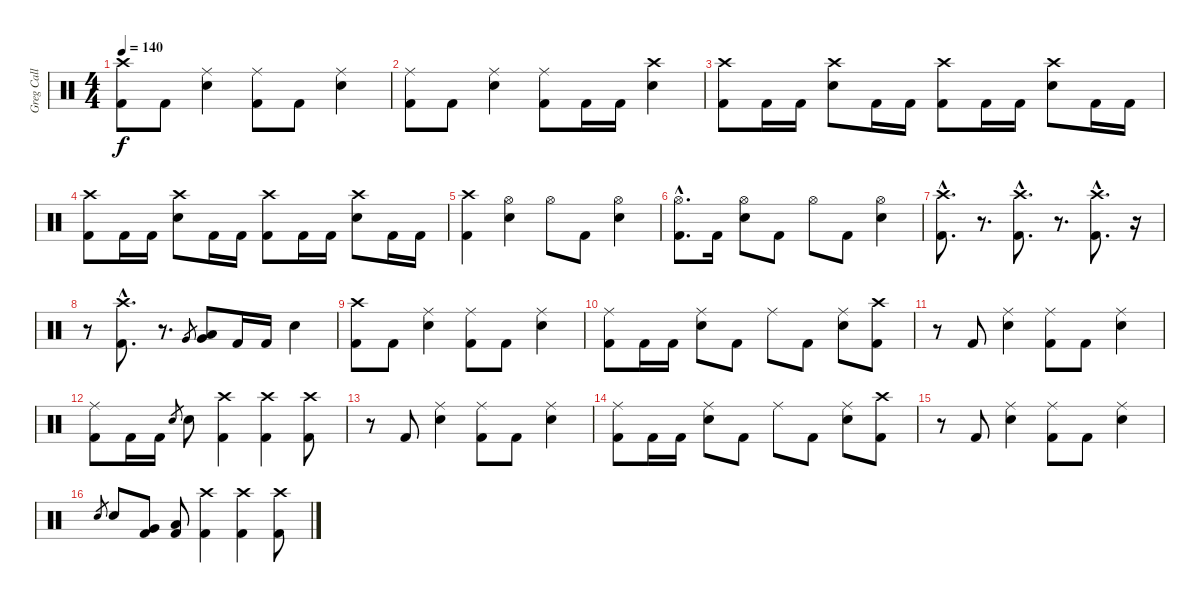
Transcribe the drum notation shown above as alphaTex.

\track ("Greg Call (Drums)" "Greg Call ") {instrument percussion}
\staff {score}
\articulation defaults
\ts (4 4)
\tempo 140
\clef neutral
\ks c
("Crash high (hit)" "Kick (hit) 2").8{dy f} "Kick (hit) 2".8 ("Ride (middle)" "Snare (hit) 2").4 ("Ride (middle)" "Kick (hit) 2").8 "Kick (hit) 2".8 ("Ride (middle)" "Snare (hit) 2").4 |
("Ride (middle)" "Kick (hit) 2").8 "Kick (hit) 2".8 ("Ride (middle)" "Snare (hit) 2").4 ("Ride (middle)" "Kick (hit) 2").8 "Kick (hit) 2".16 "Kick (hit) 2".16 ("Crash high (hit)" "Snare (hit) 2").4 |
("Crash high (hit)" "Kick (hit) 2").8 "Kick (hit) 2".16 "Kick (hit) 2".16 ("Crash high (hit)" "Snare (hit) 2").8 "Kick (hit) 2".16 "Kick (hit) 2".16 ("Crash high (hit)" "Kick (hit) 2").8 "Kick (hit) 2".16 "Kick (hit) 2".16 ("Crash high (hit)" "Snare (hit) 2").8 "Kick (hit) 2".16 "Kick (hit) 2".16 |
("Crash high (hit)" "Kick (hit) 2").8 "Kick (hit) 2".16 "Kick (hit) 2".16 ("Crash high (hit)" "Snare (hit) 2").8 "Kick (hit) 2".16 "Kick (hit) 2".16 ("Crash high (hit)" "Kick (hit) 2").8 "Kick (hit) 2".16 "Kick (hit) 2".16 ("Crash high (hit)" "Snare (hit) 2").8 "Kick (hit) 2".16 "Kick (hit) 2".16 |
("Kick (hit) 2" "Crash high (hit)").4 ("Hi-Hat (open)" "Snare (hit) 2").4 "Hi-Hat (open)".8 "Kick (hit) 2".8 ("Hi-Hat (open)" "Snare (hit) 2").4 |
("Hi-Hat (open)"{hac} "Kick (hit) 2"{hac}).8{d} "Kick (hit) 2".16 ("Hi-Hat (open)" "Snare (hit) 2").8 "Kick (hit) 2".8 "Hi-Hat (open)".8 "Kick (hit) 2".8 ("Hi-Hat (open)" "Snare (hit) 2").4 |
("Crash high (hit)"{hac} "Kick (hit) 2"{hac}).8{d} r.8{d volume 0} ("Crash high (hit)"{hac} "Kick (hit) 2"{hac}).8{d volume 16} r.8{d volume 0} ("Crash high (hit)"{hac} "Kick (hit) 2"{hac}).8{d volume 16} r.16{volume 0} |
r.8 ("Crash high (hit)"{hac} "Kick (hit) 2"{hac}).8{d volume 16} r.8{d} "Very Low Tom (hit)".8{gr} ("Low Tom (hit)" "Very Low Tom (hit)").8 "Kick (hit) 2".16 "Kick (hit) 2".16 "Snare (hit) 2".4 |
("Crash high (hit)" "Kick (hit) 2").8 "Kick (hit) 2".8 ("Ride (middle)" "Snare (hit) 2").4 ("Ride (middle)" "Kick (hit) 2").8 "Kick (hit) 2".8 ("Ride (middle)" "Snare (hit) 2").4 |
("Ride (middle)" "Kick (hit) 2").8 "Kick (hit) 2".16 "Kick (hit) 2".16 ("Ride (middle)" "Snare (hit) 2").8 "Kick (hit) 2".8 "Ride (middle)".8 "Kick (hit) 2".8 ("Ride (middle)" "Snare (hit) 2").8 ("Crash high (hit)" "Kick (hit) 2").8 |
r.8 "Kick (hit) 2".8 ("Ride (middle)" "Snare (hit) 2").4 ("Ride (middle)" "Kick (hit) 2").8 "Kick (hit) 2".8 ("Ride (middle)" "Snare (hit) 2").4 |
("Ride (middle)" "Kick (hit) 2").8 "Kick (hit) 2".16 "Kick (hit) 2".16 "Snare (hit) 2".8{gr} "Snare (hit) 2".8 ("Crash high (hit)" "Kick (hit) 2").4 ("Crash high (hit)" "Kick (hit) 2").4 ("Crash high (hit)" "Kick (hit) 2").8 |
r.8 "Kick (hit) 2".8 ("Ride (middle)" "Snare (hit) 2").4 ("Ride (middle)" "Kick (hit) 2").8 "Kick (hit) 2".8 ("Ride (middle)" "Snare (hit) 2").4 |
("Ride (middle)" "Kick (hit) 2").8 "Kick (hit) 2".16 "Kick (hit) 2".16 ("Ride (middle)" "Snare (hit) 2").8 "Kick (hit) 2".8 "Ride (middle)".8 "Kick (hit) 2".8 ("Ride (middle)" "Snare (hit) 2").8 ("Crash high (hit)" "Kick (hit) 2").8 |
r.8 "Kick (hit) 2".8 ("Ride (middle)" "Snare (hit) 2").4 ("Ride (middle)" "Kick (hit) 2").8 "Kick (hit) 2".8 ("Ride (middle)" "Snare (hit) 2").4 |
"Snare (hit) 2".8{gr} "Snare (hit) 2".8 ("Very Low Tom (hit)" "Kick (hit) 2").8 ("Low Floor Tom (hit)" "Kick (hit) 2").8 ("Crash high (hit)" "Kick (hit) 2").4 ("Crash high (hit)" "Kick (hit) 2").4 ("Crash high (hit)" "Kick (hit) 2").8
